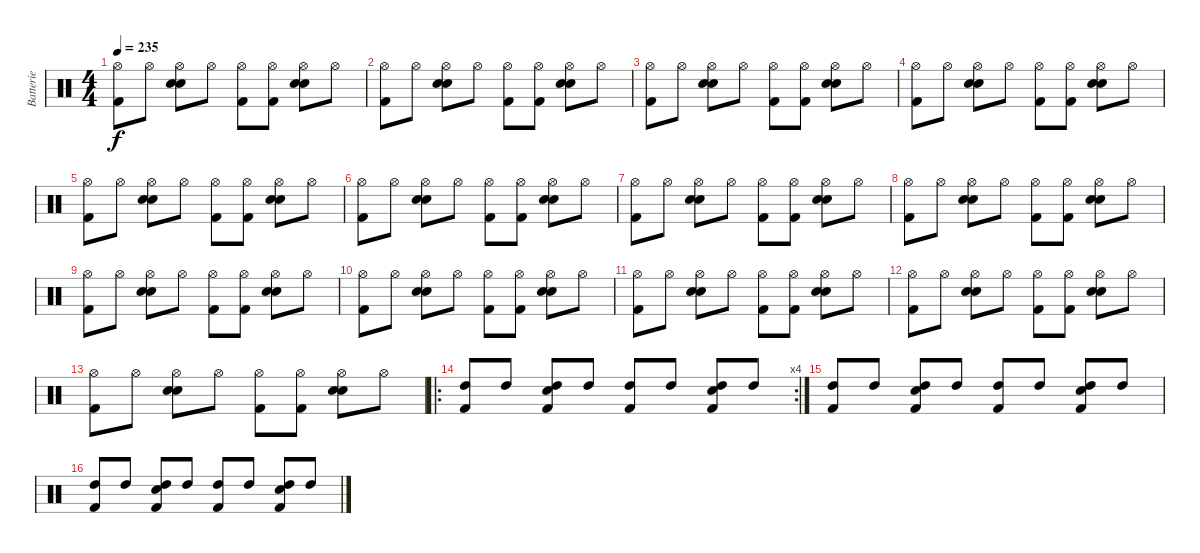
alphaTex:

\track ("Batterie" "Batterie") {instrument percussion}
\staff {score}
\articulation defaults
\ts (4 4)
\tempo 235
\clef neutral
\ks c
("Kick (hit) 2" "Hi-Hat (open)").8{dy f} "Hi-Hat (open)".8 ("Electric Snare (hit)" "Electric Snare (hit)" "Hi-Hat (open)").8 "Hi-Hat (open)".8 ("Kick (hit) 2" "Hi-Hat (open)").8 ("Kick (hit) 2" "Hi-Hat (open)").8 ("Electric Snare (hit)" "Electric Snare (hit)" "Hi-Hat (open)").8 "Hi-Hat (open)".8 |
("Kick (hit) 2" "Hi-Hat (open)").8 "Hi-Hat (open)".8 ("Electric Snare (hit)" "Electric Snare (hit)" "Hi-Hat (open)").8 "Hi-Hat (open)".8 ("Kick (hit) 2" "Hi-Hat (open)").8 ("Kick (hit) 2" "Hi-Hat (open)").8 ("Electric Snare (hit)" "Electric Snare (hit)" "Hi-Hat (open)").8 "Hi-Hat (open)".8 |
("Kick (hit) 2" "Hi-Hat (open)").8 "Hi-Hat (open)".8 ("Electric Snare (hit)" "Electric Snare (hit)" "Hi-Hat (open)").8 "Hi-Hat (open)".8 ("Kick (hit) 2" "Hi-Hat (open)").8 ("Kick (hit) 2" "Hi-Hat (open)").8 ("Electric Snare (hit)" "Electric Snare (hit)" "Hi-Hat (open)").8 "Hi-Hat (open)".8 |
("Kick (hit) 2" "Hi-Hat (open)").8 "Hi-Hat (open)".8 ("Electric Snare (hit)" "Electric Snare (hit)" "Hi-Hat (open)").8 "Hi-Hat (open)".8 ("Kick (hit) 2" "Hi-Hat (open)").8 ("Kick (hit) 2" "Hi-Hat (open)").8 ("Electric Snare (hit)" "Electric Snare (hit)" "Hi-Hat (open)").8 "Hi-Hat (open)".8 |
("Kick (hit) 2" "Hi-Hat (open)").8 "Hi-Hat (open)".8 ("Electric Snare (hit)" "Electric Snare (hit)" "Hi-Hat (open)").8 "Hi-Hat (open)".8 ("Kick (hit) 2" "Hi-Hat (open)").8 ("Kick (hit) 2" "Hi-Hat (open)").8 ("Electric Snare (hit)" "Electric Snare (hit)" "Hi-Hat (open)").8 "Hi-Hat (open)".8 |
("Kick (hit) 2" "Hi-Hat (open)").8 "Hi-Hat (open)".8 ("Electric Snare (hit)" "Electric Snare (hit)" "Hi-Hat (open)").8 "Hi-Hat (open)".8 ("Kick (hit) 2" "Hi-Hat (open)").8 ("Kick (hit) 2" "Hi-Hat (open)").8 ("Electric Snare (hit)" "Electric Snare (hit)" "Hi-Hat (open)").8 "Hi-Hat (open)".8 |
("Kick (hit) 2" "Hi-Hat (open)").8 "Hi-Hat (open)".8 ("Electric Snare (hit)" "Electric Snare (hit)" "Hi-Hat (open)").8 "Hi-Hat (open)".8 ("Kick (hit) 2" "Hi-Hat (open)").8 ("Kick (hit) 2" "Hi-Hat (open)").8 ("Electric Snare (hit)" "Electric Snare (hit)" "Hi-Hat (open)").8 "Hi-Hat (open)".8 |
("Kick (hit) 2" "Hi-Hat (open)").8 "Hi-Hat (open)".8 ("Electric Snare (hit)" "Electric Snare (hit)" "Hi-Hat (open)").8 "Hi-Hat (open)".8 ("Kick (hit) 2" "Hi-Hat (open)").8 ("Kick (hit) 2" "Hi-Hat (open)").8 ("Electric Snare (hit)" "Electric Snare (hit)" "Hi-Hat (open)").8 "Hi-Hat (open)".8 |
("Kick (hit) 2" "Hi-Hat (open)").8 "Hi-Hat (open)".8 ("Electric Snare (hit)" "Electric Snare (hit)" "Hi-Hat (open)").8 "Hi-Hat (open)".8 ("Kick (hit) 2" "Hi-Hat (open)").8 ("Kick (hit) 2" "Hi-Hat (open)").8 ("Electric Snare (hit)" "Electric Snare (hit)" "Hi-Hat (open)").8 "Hi-Hat (open)".8 |
("Kick (hit) 2" "Hi-Hat (open)").8 "Hi-Hat (open)".8 ("Electric Snare (hit)" "Electric Snare (hit)" "Hi-Hat (open)").8 "Hi-Hat (open)".8 ("Kick (hit) 2" "Hi-Hat (open)").8 ("Kick (hit) 2" "Hi-Hat (open)").8 ("Electric Snare (hit)" "Electric Snare (hit)" "Hi-Hat (open)").8 "Hi-Hat (open)".8 |
("Kick (hit) 2" "Hi-Hat (open)").8 "Hi-Hat (open)".8 ("Electric Snare (hit)" "Electric Snare (hit)" "Hi-Hat (open)").8 "Hi-Hat (open)".8 ("Kick (hit) 2" "Hi-Hat (open)").8 ("Kick (hit) 2" "Hi-Hat (open)").8 ("Electric Snare (hit)" "Electric Snare (hit)" "Hi-Hat (open)").8 "Hi-Hat (open)".8 |
("Kick (hit) 2" "Hi-Hat (open)").8 "Hi-Hat (open)".8 ("Electric Snare (hit)" "Electric Snare (hit)" "Hi-Hat (open)").8 "Hi-Hat (open)".8 ("Kick (hit) 2" "Hi-Hat (open)").8 ("Kick (hit) 2" "Hi-Hat (open)").8 ("Electric Snare (hit)" "Electric Snare (hit)" "Hi-Hat (open)").8 "Hi-Hat (open)".8 |
("Kick (hit) 2" "Hi-Hat (open)").8 "Hi-Hat (open)".8 ("Electric Snare (hit)" "Electric Snare (hit)" "Hi-Hat (open)").8 "Hi-Hat (open)".8 ("Kick (hit) 2" "Hi-Hat (open)").8 ("Kick (hit) 2" "Hi-Hat (open)").8 ("Electric Snare (hit)" "Electric Snare (hit)" "Hi-Hat (open)").8 "Hi-Hat (open)".8 |
\ro
\rc 4
("Kick (hit) 2" "High Tom (hit)").8 "High Tom (hit)".8 ("Kick (hit) 2" "High Tom (hit)" "Electric Snare (hit)").8 "High Tom (hit)".8 ("Kick (hit) 2" "High Tom (hit)").8 "High Tom (hit)".8 ("Kick (hit) 2" "High Tom (hit)" "Electric Snare (hit)").8 "High Tom (hit)".8 |
("Kick (hit) 2" "High Tom (hit)").8 "High Tom (hit)".8 ("Kick (hit) 2" "High Tom (hit)" "Electric Snare (hit)").8 "High Tom (hit)".8 ("Kick (hit) 2" "High Tom (hit)").8 "High Tom (hit)".8 ("Kick (hit) 2" "High Tom (hit)" "Electric Snare (hit)").8 "High Tom (hit)".8 |
("Kick (hit) 2" "High Tom (hit)").8 "High Tom (hit)".8 ("Kick (hit) 2" "High Tom (hit)" "Electric Snare (hit)").8 "High Tom (hit)".8 ("Kick (hit) 2" "High Tom (hit)").8 "High Tom (hit)".8 ("Kick (hit) 2" "High Tom (hit)" "Electric Snare (hit)").8 "High Tom (hit)".8
